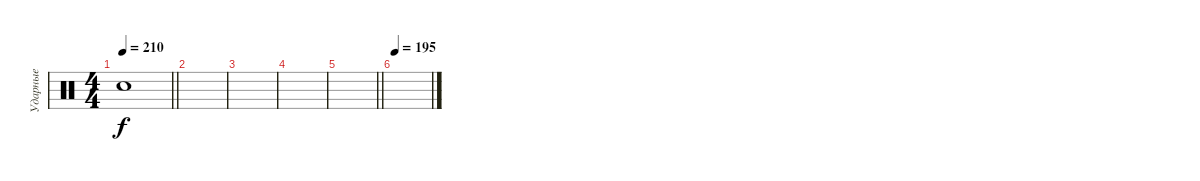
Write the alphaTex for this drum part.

\track ("Ударные" "Ударные") {instrument percussion}
\staff {score}
\articulation defaults
\ts (4 4)
\tempo 210
\clef neutral
\barLineRight lightlight
\ks c "Snare (hit)"{t}.1{dy f}
|
|
|
|
\barLineRight lightlight
|
\section ("" "")
\tempo 195
